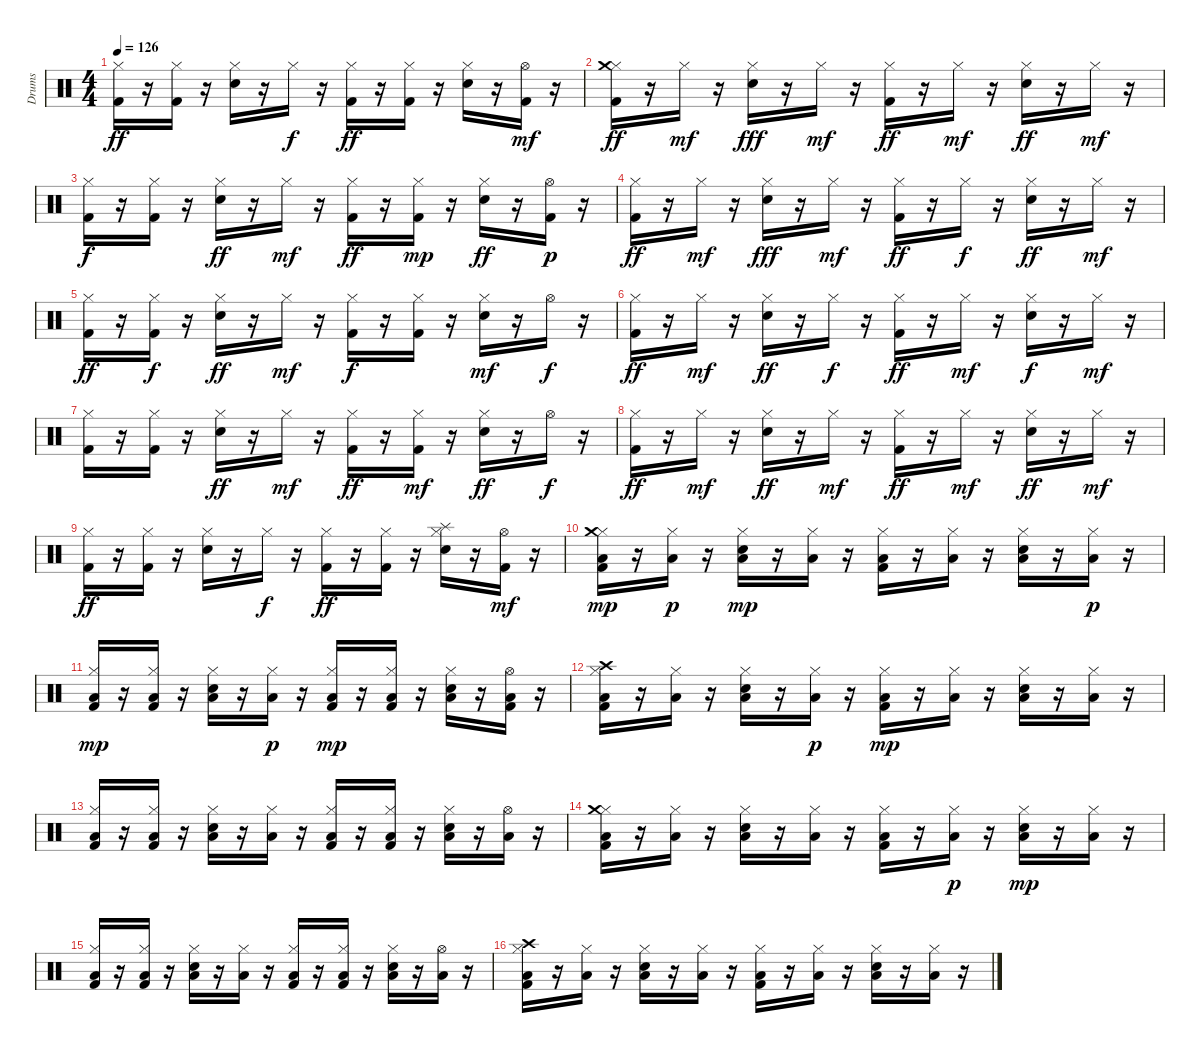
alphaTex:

\track ("Drums" "Drums") {instrument percussion}
\staff {score}
\articulation defaults
\ts (4 4)
\tempo 126
\clef neutral
\ks c
("Kick (hit) 2" "Hi-Hat (closed)").16{dy ff} r.16 ("Hi-Hat (closed)" "Kick (hit) 2").16 r.16 ("Hi-Hat (closed)" "Snare (hit) 2").16 r.16 "Hi-Hat (closed)".16{dy f} r.16 ("Kick (hit) 2" "Hi-Hat (closed)").16{dy ff} r.16 ("Hi-Hat (closed)" "Kick (hit) 2").16 r.16 ("Hi-Hat (closed)" "Snare (hit) 2").16 r.16 ("Hi-Hat (open)" "Kick (hit) 2").16{dy mf} r.16 |
("Kick (hit) 2" "Hi-Hat (closed)" "Crash medium (hit)").16{dy ff} r.16 "Hi-Hat (closed)".16{dy mf} r.16 ("Hi-Hat (closed)" "Snare (hit) 2").16{dy fff} r.16 "Hi-Hat (closed)".16{dy mf} r.16 ("Kick (hit) 2" "Hi-Hat (closed)").16{dy ff} r.16 "Hi-Hat (closed)".16{dy mf} r.16 ("Hi-Hat (closed)" "Snare (hit) 2").16{dy ff} r.16 "Hi-Hat (closed)".16{dy mf} r.16 |
("Kick (hit) 2" "Hi-Hat (closed)").16{dy f} r.16 ("Hi-Hat (closed)" "Kick (hit) 2").16 r.16 ("Hi-Hat (closed)" "Snare (hit) 2").16{dy ff} r.16 "Hi-Hat (closed)".16{dy mf} r.16 ("Hi-Hat (closed)" "Kick (hit) 2").16{dy ff} r.16 ("Kick (hit) 2" "Hi-Hat (closed)").16{dy mp} r.16 ("Hi-Hat (closed)" "Snare (hit) 2").16{dy ff} r.16 ("Hi-Hat (open)" "Kick (hit) 2").16{dy p} r.16 |
("Hi-Hat (closed)" "Kick (hit) 2").16{dy ff} r.16 "Hi-Hat (closed)".16{dy mf} r.16 ("Hi-Hat (closed)" "Snare (hit) 2").16{dy fff} r.16 "Hi-Hat (closed)".16{dy mf} r.16 ("Kick (hit) 2" "Hi-Hat (closed)").16{dy ff} r.16 "Hi-Hat (closed)".16{dy f} r.16 ("Snare (hit) 2" "Hi-Hat (closed)").16{dy ff} r.16 "Hi-Hat (closed)".16{dy mf} r.16 |
("Hi-Hat (closed)" "Kick (hit) 2").16{dy ff} r.16 ("Kick (hit) 2" "Hi-Hat (closed)").16{dy f} r.16 ("Hi-Hat (closed)" "Snare (hit) 2").16{dy ff} r.16 "Hi-Hat (closed)".16{dy mf} r.16 ("Kick (hit) 2" "Hi-Hat (closed)").16{dy f} r.16 ("Hi-Hat (closed)" "Kick (hit) 2").16 r.16 ("Snare (hit) 2" "Hi-Hat (closed)").16{dy mf} r.16 "Hi-Hat (open)".16{dy f} r.16 |
("Hi-Hat (closed)" "Kick (hit) 2").16{dy ff} r.16 "Hi-Hat (closed)".16{dy mf} r.16 ("Snare (hit) 2" "Hi-Hat (closed)").16{dy ff} r.16 "Hi-Hat (closed)".16{dy f} r.16 ("Kick (hit) 2" "Hi-Hat (closed)").16{dy ff} r.16 "Hi-Hat (closed)".16{dy mf} r.16 ("Snare (hit) 2" "Hi-Hat (closed)").16{dy f} r.16 "Hi-Hat (closed)".16{dy mf} r.16 |
("Kick (hit) 2" "Hi-Hat (closed)").16 r.16 ("Hi-Hat (closed)" "Kick (hit) 2").16 r.16 ("Hi-Hat (closed)" "Snare (hit) 2").16{dy ff} r.16 "Hi-Hat (closed)".16{dy mf} r.16 ("Hi-Hat (closed)" "Kick (hit) 2").16{dy ff} r.16 ("Hi-Hat (closed)" "Kick (hit) 2").16{dy mf} r.16 ("Hi-Hat (closed)" "Snare (hit) 2").16{dy ff} r.16 "Hi-Hat (open)".16{dy f} r.16 |
("Hi-Hat (closed)" "Kick (hit) 2").16{dy ff} r.16 "Hi-Hat (closed)".16{dy mf} r.16 ("Hi-Hat (closed)" "Snare (hit) 2").16{dy ff} r.16 "Hi-Hat (closed)".16{dy mf} r.16 ("Kick (hit) 2" "Hi-Hat (closed)").16{dy ff} r.16 "Hi-Hat (closed)".16{dy mf} r.16 ("Hi-Hat (closed)" "Snare (hit) 2").16{dy ff} r.16 "Hi-Hat (closed)".16{dy mf} r.16 |
("Kick (hit) 2" "Hi-Hat (closed)").16{dy ff} r.16 ("Hi-Hat (closed)" "Kick (hit) 2").16 r.16 ("Hi-Hat (closed)" "Snare (hit) 2").16 r.16 "Hi-Hat (closed)".16{dy f} r.16 ("Kick (hit) 2" "Hi-Hat (closed)").16{dy ff} r.16 ("Hi-Hat (closed)" "Kick (hit) 2").16 r.16 ("Hi-Hat (closed)" "Snare (hit) 2" "Splash (hit)").16 r.16 ("Hi-Hat (open)" "Kick (hit) 2").16{dy mf} r.16 |
("Kick (hit) 2" "Hi-Hat (closed)" "Low Floor Tom (hit)" "Crash medium (hit)").16{dy mp} r.16 ("Hi-Hat (closed)" "Low Floor Tom (hit)").16{dy p} r.16 ("Hi-Hat (closed)" "Snare (hit) 2" "Low Floor Tom (hit)").16{dy mp} r.16 ("Hi-Hat (closed)" "Low Floor Tom (hit)").16 r.16 ("Kick (hit) 2" "Hi-Hat (closed)" "Low Floor Tom (hit)").16 r.16 ("Hi-Hat (closed)" "Low Floor Tom (hit)").16 r.16 ("Hi-Hat (closed)" "Snare (hit) 2" "Low Floor Tom (hit)").16 r.16 ("Hi-Hat (closed)" "Low Floor Tom (hit)").16{dy p} r.16 |
("Kick (hit) 2" "Hi-Hat (closed)" "Low Floor Tom (hit)").16{dy mp} r.16 ("Hi-Hat (closed)" "Kick (hit) 2" "Low Floor Tom (hit)").16 r.16 ("Hi-Hat (closed)" "Snare (hit) 2" "Low Floor Tom (hit)").16 r.16 ("Hi-Hat (closed)" "Low Floor Tom (hit)").16{dy p} r.16 ("Hi-Hat (closed)" "Kick (hit) 2" "Low Floor Tom (hit)").16{dy mp} r.16 ("Kick (hit) 2" "Hi-Hat (closed)" "Low Floor Tom (hit)").16 r.16 ("Hi-Hat (closed)" "Snare (hit) 2" "Low Floor Tom (hit)").16 r.16 ("Hi-Hat (open)" "Kick (hit) 2" "Low Floor Tom (hit)").16 r.16 |
("Hi-Hat (closed)" "Kick (hit) 2" "Low Floor Tom (hit)" "Crash high (hit)").16 r.16 ("Hi-Hat (closed)" "Low Floor Tom (hit)").16 r.16 ("Hi-Hat (closed)" "Snare (hit) 2" "Low Floor Tom (hit)").16 r.16 ("Hi-Hat (closed)" "Low Floor Tom (hit)").16{dy p} r.16 ("Kick (hit) 2" "Hi-Hat (closed)" "Low Floor Tom (hit)").16{dy mp} r.16 ("Hi-Hat (closed)" "Low Floor Tom (hit)").16 r.16 ("Snare (hit) 2" "Hi-Hat (closed)" "Low Floor Tom (hit)").16 r.16 ("Hi-Hat (closed)" "Low Floor Tom (hit)").16 r.16 |
("Hi-Hat (closed)" "Kick (hit) 2" "Low Floor Tom (hit)").16 r.16 ("Kick (hit) 2" "Hi-Hat (closed)" "Low Floor Tom (hit)").16 r.16 ("Hi-Hat (closed)" "Snare (hit) 2" "Low Floor Tom (hit)").16 r.16 ("Hi-Hat (closed)" "Low Floor Tom (hit)").16 r.16 ("Kick (hit) 2" "Hi-Hat (closed)" "Low Floor Tom (hit)").16 r.16 ("Hi-Hat (closed)" "Kick (hit) 2" "Low Floor Tom (hit)").16 r.16 ("Snare (hit) 2" "Hi-Hat (closed)" "Low Floor Tom (hit)").16 r.16 ("Hi-Hat (open)" "Low Floor Tom (hit)").16 r.16 |
("Hi-Hat (closed)" "Kick (hit) 2" "Low Floor Tom (hit)" "Crash medium (hit)").16 r.16 ("Hi-Hat (closed)" "Low Floor Tom (hit)").16 r.16 ("Snare (hit) 2" "Hi-Hat (closed)" "Low Floor Tom (hit)").16 r.16 ("Hi-Hat (closed)" "Low Floor Tom (hit)").16 r.16 ("Kick (hit) 2" "Hi-Hat (closed)" "Low Floor Tom (hit)").16 r.16 ("Hi-Hat (closed)" "Low Floor Tom (hit)").16{dy p} r.16 ("Snare (hit) 2" "Hi-Hat (closed)" "Low Floor Tom (hit)").16{dy mp} r.16 ("Hi-Hat (closed)" "Low Floor Tom (hit)").16 r.16 |
("Kick (hit) 2" "Hi-Hat (closed)" "Low Floor Tom (hit)").16 r.16 ("Hi-Hat (closed)" "Kick (hit) 2" "Low Floor Tom (hit)").16 r.16 ("Hi-Hat (closed)" "Snare (hit) 2" "Low Floor Tom (hit)").16 r.16 ("Hi-Hat (closed)" "Low Floor Tom (hit)").16 r.16 ("Hi-Hat (closed)" "Kick (hit) 2" "Low Floor Tom (hit)").16 r.16 ("Hi-Hat (closed)" "Kick (hit) 2" "Low Floor Tom (hit)").16 r.16 ("Hi-Hat (closed)" "Snare (hit) 2" "Low Floor Tom (hit)").16 r.16 ("Hi-Hat (open)" "Low Floor Tom (hit)").16 r.16 |
("Hi-Hat (closed)" "Kick (hit) 2" "Low Floor Tom (hit)" "Crash high (hit)").16 r.16 ("Hi-Hat (closed)" "Low Floor Tom (hit)").16 r.16 ("Hi-Hat (closed)" "Snare (hit) 2" "Low Floor Tom (hit)").16 r.16 ("Hi-Hat (closed)" "Low Floor Tom (hit)").16 r.16 ("Kick (hit) 2" "Hi-Hat (closed)" "Low Floor Tom (hit)").16 r.16 ("Hi-Hat (closed)" "Low Floor Tom (hit)").16 r.16 ("Hi-Hat (closed)" "Snare (hit) 2" "Low Floor Tom (hit)").16 r.16 ("Hi-Hat (closed)" "Low Floor Tom (hit)").16 r.16
